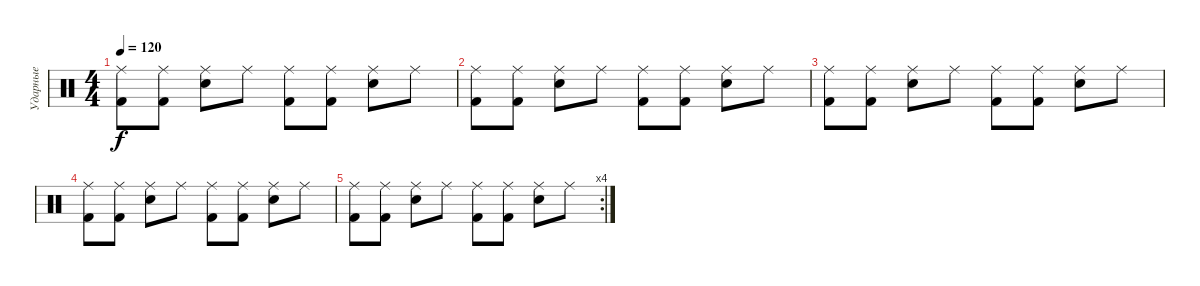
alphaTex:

\track ("Ударные" "Ударные") {instrument percussion}
\staff {score}
\articulation defaults
\ts (4 4)
\tempo 120
\clef neutral
\ks c
("Ride (middle)" "Kick (hit) 2").8{dy f} ("Ride (middle)" "Kick (hit) 2").8 ("Ride (middle)" "Snare (hit) 2").8 "Ride (middle)".8 ("Ride (middle)" "Kick (hit) 2").8 ("Ride (middle)" "Kick (hit) 2").8 ("Ride (middle)" "Snare (hit) 2").8 "Ride (middle)".8 |
("Ride (middle)" "Kick (hit) 2").8 ("Ride (middle)" "Kick (hit) 2").8 ("Ride (middle)" "Snare (hit) 2").8 "Ride (middle)".8 ("Ride (middle)" "Kick (hit) 2").8 ("Ride (middle)" "Kick (hit) 2").8 ("Ride (middle)" "Snare (hit) 2").8 "Ride (middle)".8 |
("Ride (middle)" "Kick (hit) 2").8 ("Ride (middle)" "Kick (hit) 2").8 ("Ride (middle)" "Snare (hit) 2").8 "Ride (middle)".8 ("Ride (middle)" "Kick (hit) 2").8 ("Ride (middle)" "Kick (hit) 2").8 ("Ride (middle)" "Snare (hit) 2").8 "Ride (middle)".8 |
("Ride (middle)" "Kick (hit) 2").8 ("Ride (middle)" "Kick (hit) 2").8 ("Ride (middle)" "Snare (hit) 2").8 "Ride (middle)".8 ("Ride (middle)" "Kick (hit) 2").8 ("Ride (middle)" "Kick (hit) 2").8 ("Ride (middle)" "Snare (hit) 2").8 "Ride (middle)".8 |
\rc 4
("Ride (middle)" "Kick (hit) 2").8 ("Ride (middle)" "Kick (hit) 2").8 ("Ride (middle)" "Snare (hit) 2").8 "Ride (middle)".8 ("Ride (middle)" "Kick (hit) 2").8 ("Ride (middle)" "Kick (hit) 2").8 ("Ride (middle)" "Snare (hit) 2").8 "Ride (middle)".8
